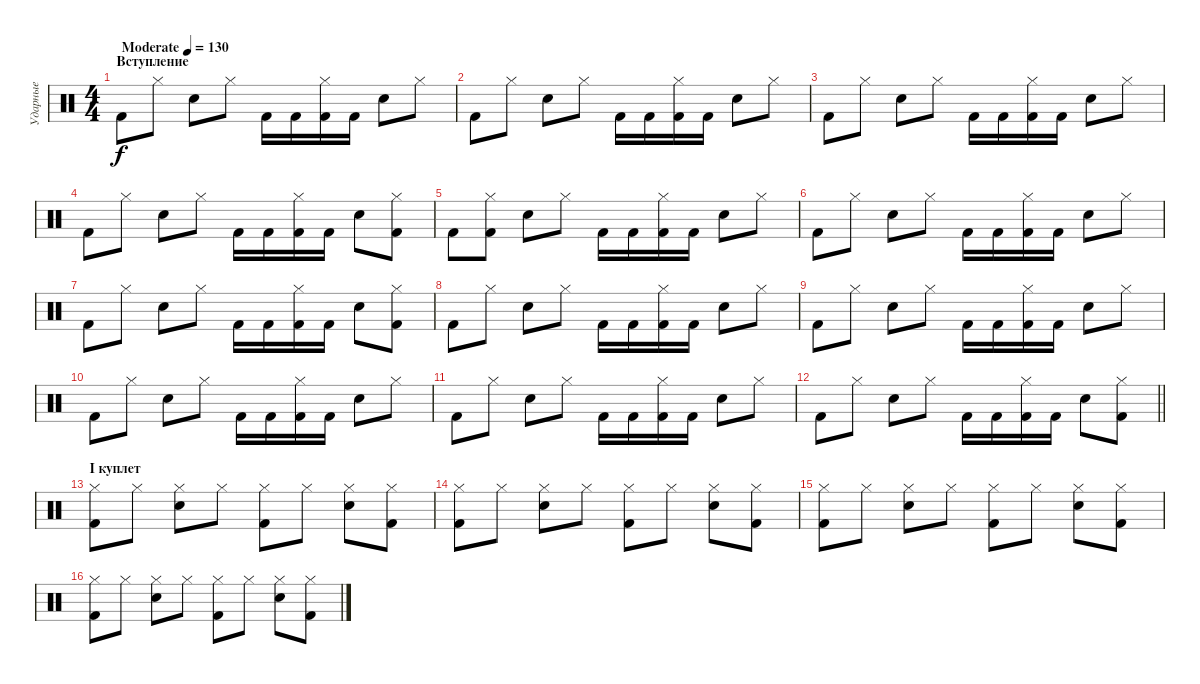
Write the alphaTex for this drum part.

\track ("Ударные" "Ударные") {instrument percussion}
\staff {score}
\articulation defaults
\ts (4 4)
\section ("" "Вступление")
\tempo (130 "Moderate")
\clef neutral
\ks c "Kick (hit) 2".8{dy f} "Hi-Hat (closed)".8 "Electric Snare (hit)".8 "Hi-Hat (closed)".8 "Kick (hit) 2".16 "Kick (hit) 2".16
("Hi-Hat (closed)" "Kick (hit) 2").16 "Kick (hit) 2".16 "Electric Snare (hit)".8 "Hi-Hat (closed)".8 |
"Kick (hit) 2".8 "Hi-Hat (closed)".8 "Electric Snare (hit)".8 "Hi-Hat (closed)".8 "Kick (hit) 2".16 "Kick (hit) 2".16 ("Hi-Hat (closed)" "Kick (hit) 2").16 "Kick (hit) 2".16 "Electric Snare (hit)".8 "Hi-Hat (closed)".8 |
"Kick (hit) 2".8 "Hi-Hat (closed)".8 "Electric Snare (hit)".8 "Hi-Hat (closed)".8 "Kick (hit) 2".16 "Kick (hit) 2".16 ("Hi-Hat (closed)" "Kick (hit) 2").16 "Kick (hit) 2".16 "Electric Snare (hit)".8 "Hi-Hat (closed)".8 |
"Kick (hit) 2".8 "Hi-Hat (closed)".8 "Electric Snare (hit)".8 "Hi-Hat (closed)".8 "Kick (hit) 2".16 "Kick (hit) 2".16 ("Hi-Hat (closed)" "Kick (hit) 2").16 "Kick (hit) 2".16 "Electric Snare (hit)".8 ("Hi-Hat (closed)" "Kick (hit) 2").8 |
"Kick (hit) 2".8 ("Hi-Hat (closed)" "Kick (hit) 2").8 "Electric Snare (hit)".8 "Hi-Hat (closed)".8 "Kick (hit) 2".16 "Kick (hit) 2".16 ("Hi-Hat (closed)" "Kick (hit) 2").16 "Kick (hit) 2".16 "Electric Snare (hit)".8 "Hi-Hat (closed)".8 |
"Kick (hit) 2".8 "Hi-Hat (closed)".8 "Electric Snare (hit)".8 "Hi-Hat (closed)".8 "Kick (hit) 2".16 "Kick (hit) 2".16 ("Hi-Hat (closed)" "Kick (hit) 2").16 "Kick (hit) 2".16 "Electric Snare (hit)".8 "Hi-Hat (closed)".8 |
"Kick (hit) 2".8 "Hi-Hat (closed)".8 "Electric Snare (hit)".8 "Hi-Hat (closed)".8 "Kick (hit) 2".16 "Kick (hit) 2".16 ("Hi-Hat (closed)" "Kick (hit) 2").16 "Kick (hit) 2".16 "Electric Snare (hit)".8 ("Hi-Hat (closed)" "Kick (hit) 2").8 |
"Kick (hit) 2".8 "Hi-Hat (closed)".8 "Electric Snare (hit)".8 "Hi-Hat (closed)".8 "Kick (hit) 2".16 "Kick (hit) 2".16 ("Hi-Hat (closed)" "Kick (hit) 2").16 "Kick (hit) 2".16 "Electric Snare (hit)".8 "Hi-Hat (closed)".8 |
"Kick (hit) 2".8 "Hi-Hat (closed)".8 "Electric Snare (hit)".8 "Hi-Hat (closed)".8 "Kick (hit) 2".16 "Kick (hit) 2".16 ("Hi-Hat (closed)" "Kick (hit) 2").16 "Kick (hit) 2".16 "Electric Snare (hit)".8 "Hi-Hat (closed)".8 |
"Kick (hit) 2".8 "Hi-Hat (closed)".8 "Electric Snare (hit)".8 "Hi-Hat (closed)".8 "Kick (hit) 2".16 "Kick (hit) 2".16 ("Hi-Hat (closed)" "Kick (hit) 2").16 "Kick (hit) 2".16 "Electric Snare (hit)".8 "Hi-Hat (closed)".8 |
"Kick (hit) 2".8 "Hi-Hat (closed)".8 "Electric Snare (hit)".8 "Hi-Hat (closed)".8 "Kick (hit) 2".16 "Kick (hit) 2".16 ("Hi-Hat (closed)" "Kick (hit) 2").16 "Kick (hit) 2".16 "Electric Snare (hit)".8 "Hi-Hat (closed)".8 |
\barLineRight lightlight "Kick (hit) 2".8 "Hi-Hat (closed)".8 "Electric Snare (hit)".8 "Hi-Hat (closed)".8 "Kick (hit) 2".16 "Kick (hit) 2".16
("Hi-Hat (closed)" "Kick (hit) 2").16 "Kick (hit) 2".16 "Electric Snare (hit)".8 ("Hi-Hat (closed)" "Kick (hit) 2").8 |
\section ("" "I куплет")
("Hi-Hat (closed)" "Kick (hit) 2").8 "Hi-Hat (closed)".8 ("Hi-Hat (closed)" "Electric Snare (hit)").8 "Hi-Hat (closed)".8 ("Hi-Hat (closed)" "Kick (hit) 2").8 "Hi-Hat (closed)".8 ("Hi-Hat (closed)" "Electric Snare (hit)").8 ("Hi-Hat (closed)" "Kick (hit) 2").8 |
("Hi-Hat (closed)" "Kick (hit) 2").8 "Hi-Hat (closed)".8 ("Hi-Hat (closed)" "Electric Snare (hit)").8 "Hi-Hat (closed)".8 ("Hi-Hat (closed)" "Kick (hit) 2").8 "Hi-Hat (closed)".8 ("Hi-Hat (closed)" "Electric Snare (hit)").8 ("Hi-Hat (closed)" "Kick (hit) 2").8 |
("Hi-Hat (closed)" "Kick (hit) 2").8 "Hi-Hat (closed)".8 ("Hi-Hat (closed)" "Electric Snare (hit)").8 "Hi-Hat (closed)".8 ("Hi-Hat (closed)" "Kick (hit) 2").8 "Hi-Hat (closed)".8 ("Hi-Hat (closed)" "Electric Snare (hit)").8 ("Hi-Hat (closed)" "Kick (hit) 2").8 |
("Hi-Hat (closed)" "Kick (hit) 2").8 "Hi-Hat (closed)".8 ("Hi-Hat (closed)" "Electric Snare (hit)").8 "Hi-Hat (closed)".8 ("Hi-Hat (closed)" "Kick (hit) 2").8 "Hi-Hat (closed)".8 ("Hi-Hat (closed)" "Electric Snare (hit)").8 ("Hi-Hat (closed)" "Kick (hit) 2").8
